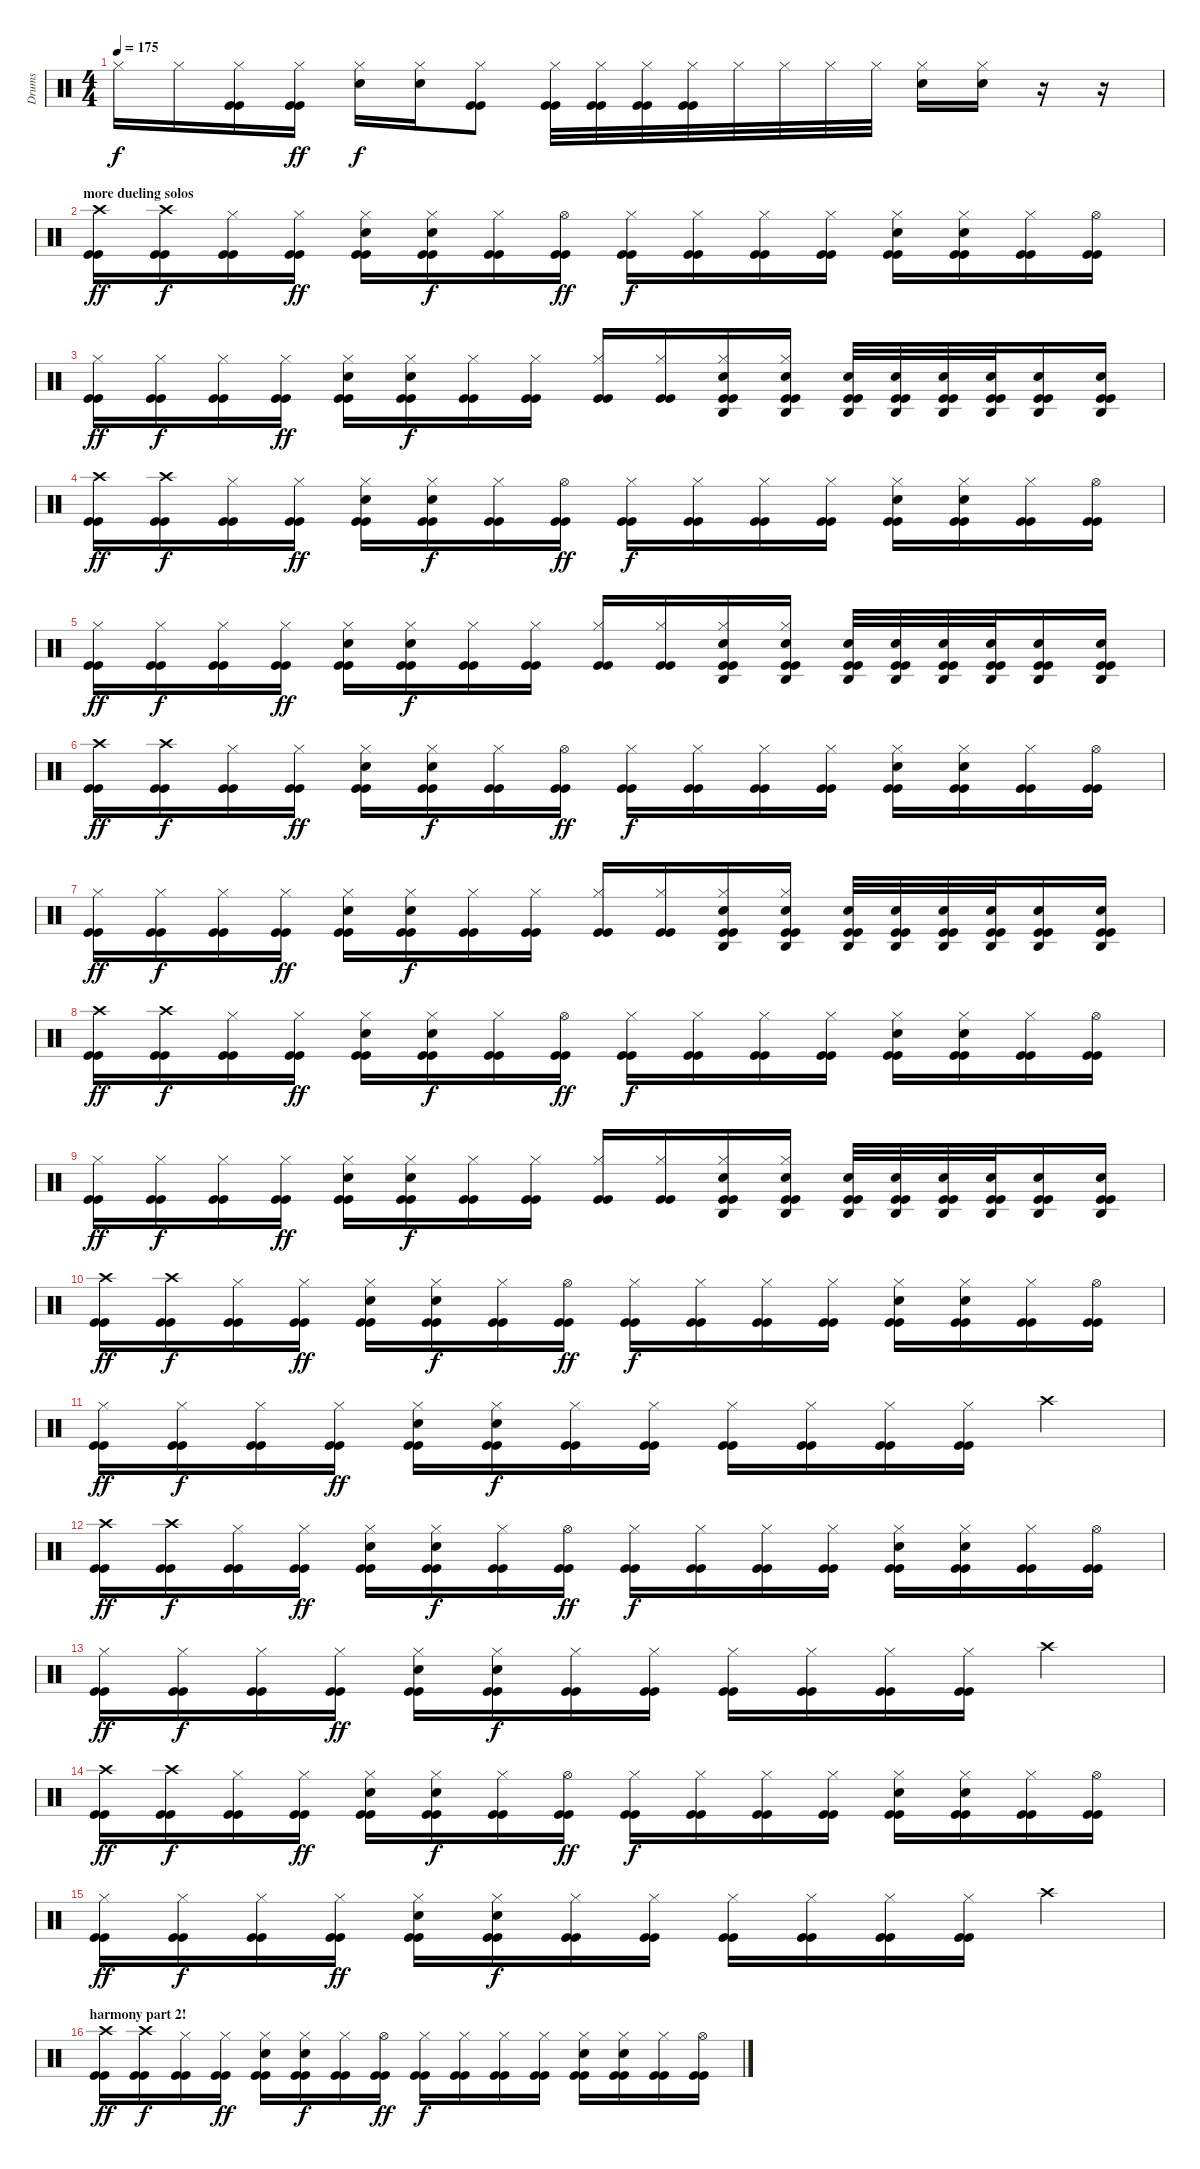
\track ("Drums" "Drums") {instrument percussion}
\staff {score}
\articulation defaults
\ts (4 4)
\tempo 175
\clef neutral
\ks c "Hi-Hat (closed)".16{dy f} "Hi-Hat (closed)".16
("Hi-Hat (closed)" "Kick (hit)" "Kick (hit)").16 ("Hi-Hat (closed)" "Kick (hit)" "Kick (hit)").16{dy ff} ("Electric Snare (hit)" "Hi-Hat (closed)").16{dy f} ("Electric Snare (hit)" "Hi-Hat (closed)").16 ("Hi-Hat (closed)" "Kick (hit)" "Kick (hit)").8 ("Hi-Hat (closed)" "Kick (hit)" "Kick (hit)").32 ("Hi-Hat (closed)" "Kick (hit)" "Kick (hit)").32 ("Hi-Hat (closed)" "Kick (hit)" "Kick (hit)").32 ("Hi-Hat (closed)" "Kick (hit)" "Kick (hit)").32 "Hi-Hat (closed)".32 "Hi-Hat (closed)".32 "Hi-Hat (closed)".32 "Hi-Hat (closed)".32 ("Electric Snare (hit)" "Hi-Hat (closed)").16 ("Electric Snare (hit)" "Hi-Hat (closed)").16 r.16 r.16 |
\section ("" "more dueling solos")
("Crash high (hit)" "Kick (hit)" "Kick (hit)").16{dy ff} ("Crash high (hit)" "Kick (hit)" "Kick (hit)").16{dy f} ("Hi-Hat (closed)" "Kick (hit)" "Kick (hit)").16 ("Hi-Hat (closed)" "Kick (hit)" "Kick (hit)").16{dy ff} ("Electric Snare (hit)" "Hi-Hat (closed)" "Kick (hit)" "Kick (hit)").16 ("Electric Snare (hit)" "Hi-Hat (closed)" "Kick (hit)" "Kick (hit)").16{dy f} ("Hi-Hat (closed)" "Kick (hit)" "Kick (hit)").16 ("Hi-Hat (open)" "Kick (hit)" "Kick (hit)").16{dy ff} ("Hi-Hat (closed)" "Kick (hit)" "Kick (hit)").16{dy f} ("Hi-Hat (closed)" "Kick (hit)" "Kick (hit)").16 ("Hi-Hat (closed)" "Kick (hit)" "Kick (hit)").16 ("Hi-Hat (closed)" "Kick (hit)" "Kick (hit)").16 ("Electric Snare (hit)" "Hi-Hat (closed)" "Kick (hit)" "Kick (hit)").16 ("Electric Snare (hit)" "Hi-Hat (closed)" "Kick (hit)" "Kick (hit)").16 ("Hi-Hat (closed)" "Kick (hit)" "Kick (hit)").16 ("Hi-Hat (open)" "Kick (hit)" "Kick (hit)").16 |
("Hi-Hat (closed)" "Kick (hit)" "Kick (hit)").16{dy ff} ("Hi-Hat (closed)" "Kick (hit)" "Kick (hit)").16{dy f} ("Hi-Hat (closed)" "Kick (hit)" "Kick (hit)").16 ("Hi-Hat (closed)" "Kick (hit)" "Kick (hit)").16{dy ff} ("Electric Snare (hit)" "Hi-Hat (closed)" "Kick (hit)" "Kick (hit)").16 ("Electric Snare (hit)" "Hi-Hat (closed)" "Kick (hit)" "Kick (hit)").16{dy f} ("Hi-Hat (closed)" "Kick (hit)" "Kick (hit)").16 ("Hi-Hat (closed)" "Kick (hit)" "Kick (hit)").16 ("Hi-Hat (closed)" "Kick (hit)" "Kick (hit)").16 ("Hi-Hat (closed)" "Kick (hit)" "Kick (hit)").16 ("Agogo high (hit)" "Electric Snare (hit)" "Hi-Hat (closed)" "Kick (hit)" "Kick (hit)").16 ("Agogo high (hit)" "Electric Snare (hit)" "Hi-Hat (closed)" "Kick (hit)" "Kick (hit)").16 ("Agogo high (hit)" "Electric Snare (hit)" "Kick (hit)" "Kick (hit)").32 ("Agogo high (hit)" "Electric Snare (hit)" "Kick (hit)" "Kick (hit)").32 ("Agogo high (hit)" "Electric Snare (hit)" "Kick (hit)" "Kick (hit)").32 ("Agogo high (hit)" "Electric Snare (hit)" "Kick (hit)" "Kick (hit)").32 ("Agogo high (hit)" "Electric Snare (hit)" "Kick (hit)" "Kick (hit)").16 ("Agogo high (hit)" "Electric Snare (hit)" "Kick (hit)" "Kick (hit)").16 |
("Crash high (hit)" "Kick (hit)" "Kick (hit)").16{dy ff} ("Crash high (hit)" "Kick (hit)" "Kick (hit)").16{dy f} ("Hi-Hat (closed)" "Kick (hit)" "Kick (hit)").16 ("Hi-Hat (closed)" "Kick (hit)" "Kick (hit)").16{dy ff} ("Electric Snare (hit)" "Hi-Hat (closed)" "Kick (hit)" "Kick (hit)").16 ("Electric Snare (hit)" "Hi-Hat (closed)" "Kick (hit)" "Kick (hit)").16{dy f} ("Hi-Hat (closed)" "Kick (hit)" "Kick (hit)").16 ("Hi-Hat (open)" "Kick (hit)" "Kick (hit)").16{dy ff} ("Hi-Hat (closed)" "Kick (hit)" "Kick (hit)").16{dy f} ("Hi-Hat (closed)" "Kick (hit)" "Kick (hit)").16 ("Hi-Hat (closed)" "Kick (hit)" "Kick (hit)").16 ("Hi-Hat (closed)" "Kick (hit)" "Kick (hit)").16 ("Electric Snare (hit)" "Hi-Hat (closed)" "Kick (hit)" "Kick (hit)").16 ("Electric Snare (hit)" "Hi-Hat (closed)" "Kick (hit)" "Kick (hit)").16 ("Hi-Hat (closed)" "Kick (hit)" "Kick (hit)").16 ("Hi-Hat (open)" "Kick (hit)" "Kick (hit)").16 |
("Hi-Hat (closed)" "Kick (hit)" "Kick (hit)").16{dy ff} ("Hi-Hat (closed)" "Kick (hit)" "Kick (hit)").16{dy f} ("Hi-Hat (closed)" "Kick (hit)" "Kick (hit)").16 ("Hi-Hat (closed)" "Kick (hit)" "Kick (hit)").16{dy ff} ("Electric Snare (hit)" "Hi-Hat (closed)" "Kick (hit)" "Kick (hit)").16 ("Electric Snare (hit)" "Hi-Hat (closed)" "Kick (hit)" "Kick (hit)").16{dy f} ("Hi-Hat (closed)" "Kick (hit)" "Kick (hit)").16 ("Hi-Hat (closed)" "Kick (hit)" "Kick (hit)").16 ("Hi-Hat (closed)" "Kick (hit)" "Kick (hit)").16 ("Hi-Hat (closed)" "Kick (hit)" "Kick (hit)").16 ("Agogo high (hit)" "Electric Snare (hit)" "Hi-Hat (closed)" "Kick (hit)" "Kick (hit)").16 ("Agogo high (hit)" "Electric Snare (hit)" "Hi-Hat (closed)" "Kick (hit)" "Kick (hit)").16 ("Agogo high (hit)" "Electric Snare (hit)" "Kick (hit)" "Kick (hit)").32 ("Agogo high (hit)" "Electric Snare (hit)" "Kick (hit)" "Kick (hit)").32 ("Agogo high (hit)" "Electric Snare (hit)" "Kick (hit)" "Kick (hit)").32 ("Agogo high (hit)" "Electric Snare (hit)" "Kick (hit)" "Kick (hit)").32 ("Agogo high (hit)" "Electric Snare (hit)" "Kick (hit)" "Kick (hit)").16 ("Agogo high (hit)" "Electric Snare (hit)" "Kick (hit)" "Kick (hit)").16 |
("Crash high (hit)" "Kick (hit)" "Kick (hit)").16{dy ff} ("Crash high (hit)" "Kick (hit)" "Kick (hit)").16{dy f} ("Hi-Hat (closed)" "Kick (hit)" "Kick (hit)").16 ("Hi-Hat (closed)" "Kick (hit)" "Kick (hit)").16{dy ff} ("Electric Snare (hit)" "Hi-Hat (closed)" "Kick (hit)" "Kick (hit)").16 ("Electric Snare (hit)" "Hi-Hat (closed)" "Kick (hit)" "Kick (hit)").16{dy f} ("Hi-Hat (closed)" "Kick (hit)" "Kick (hit)").16 ("Hi-Hat (open)" "Kick (hit)" "Kick (hit)").16{dy ff} ("Hi-Hat (closed)" "Kick (hit)" "Kick (hit)").16{dy f} ("Hi-Hat (closed)" "Kick (hit)" "Kick (hit)").16 ("Hi-Hat (closed)" "Kick (hit)" "Kick (hit)").16 ("Hi-Hat (closed)" "Kick (hit)" "Kick (hit)").16 ("Electric Snare (hit)" "Hi-Hat (closed)" "Kick (hit)" "Kick (hit)").16 ("Electric Snare (hit)" "Hi-Hat (closed)" "Kick (hit)" "Kick (hit)").16 ("Hi-Hat (closed)" "Kick (hit)" "Kick (hit)").16 ("Hi-Hat (open)" "Kick (hit)" "Kick (hit)").16 |
("Hi-Hat (closed)" "Kick (hit)" "Kick (hit)").16{dy ff} ("Hi-Hat (closed)" "Kick (hit)" "Kick (hit)").16{dy f} ("Hi-Hat (closed)" "Kick (hit)" "Kick (hit)").16 ("Hi-Hat (closed)" "Kick (hit)" "Kick (hit)").16{dy ff} ("Electric Snare (hit)" "Hi-Hat (closed)" "Kick (hit)" "Kick (hit)").16 ("Electric Snare (hit)" "Hi-Hat (closed)" "Kick (hit)" "Kick (hit)").16{dy f} ("Hi-Hat (closed)" "Kick (hit)" "Kick (hit)").16 ("Hi-Hat (closed)" "Kick (hit)" "Kick (hit)").16 ("Hi-Hat (closed)" "Kick (hit)" "Kick (hit)").16 ("Hi-Hat (closed)" "Kick (hit)" "Kick (hit)").16 ("Agogo high (hit)" "Electric Snare (hit)" "Hi-Hat (closed)" "Kick (hit)" "Kick (hit)").16 ("Agogo high (hit)" "Electric Snare (hit)" "Hi-Hat (closed)" "Kick (hit)" "Kick (hit)").16 ("Agogo high (hit)" "Electric Snare (hit)" "Kick (hit)" "Kick (hit)").32 ("Agogo high (hit)" "Electric Snare (hit)" "Kick (hit)" "Kick (hit)").32 ("Agogo high (hit)" "Electric Snare (hit)" "Kick (hit)" "Kick (hit)").32 ("Agogo high (hit)" "Electric Snare (hit)" "Kick (hit)" "Kick (hit)").32 ("Agogo high (hit)" "Electric Snare (hit)" "Kick (hit)" "Kick (hit)").16 ("Agogo high (hit)" "Electric Snare (hit)" "Kick (hit)" "Kick (hit)").16 |
("Crash high (hit)" "Kick (hit)" "Kick (hit)").16{dy ff} ("Crash high (hit)" "Kick (hit)" "Kick (hit)").16{dy f} ("Hi-Hat (closed)" "Kick (hit)" "Kick (hit)").16 ("Hi-Hat (closed)" "Kick (hit)" "Kick (hit)").16{dy ff} ("Electric Snare (hit)" "Hi-Hat (closed)" "Kick (hit)" "Kick (hit)").16 ("Electric Snare (hit)" "Hi-Hat (closed)" "Kick (hit)" "Kick (hit)").16{dy f} ("Hi-Hat (closed)" "Kick (hit)" "Kick (hit)").16 ("Hi-Hat (open)" "Kick (hit)" "Kick (hit)").16{dy ff} ("Hi-Hat (closed)" "Kick (hit)" "Kick (hit)").16{dy f} ("Hi-Hat (closed)" "Kick (hit)" "Kick (hit)").16 ("Hi-Hat (closed)" "Kick (hit)" "Kick (hit)").16 ("Hi-Hat (closed)" "Kick (hit)" "Kick (hit)").16 ("Electric Snare (hit)" "Hi-Hat (closed)" "Kick (hit)" "Kick (hit)").16 ("Electric Snare (hit)" "Hi-Hat (closed)" "Kick (hit)" "Kick (hit)").16 ("Hi-Hat (closed)" "Kick (hit)" "Kick (hit)").16 ("Hi-Hat (open)" "Kick (hit)" "Kick (hit)").16 |
("Hi-Hat (closed)" "Kick (hit)" "Kick (hit)").16{dy ff} ("Hi-Hat (closed)" "Kick (hit)" "Kick (hit)").16{dy f} ("Hi-Hat (closed)" "Kick (hit)" "Kick (hit)").16 ("Hi-Hat (closed)" "Kick (hit)" "Kick (hit)").16{dy ff} ("Electric Snare (hit)" "Hi-Hat (closed)" "Kick (hit)" "Kick (hit)").16 ("Electric Snare (hit)" "Hi-Hat (closed)" "Kick (hit)" "Kick (hit)").16{dy f} ("Hi-Hat (closed)" "Kick (hit)" "Kick (hit)").16 ("Hi-Hat (closed)" "Kick (hit)" "Kick (hit)").16 ("Hi-Hat (closed)" "Kick (hit)" "Kick (hit)").16 ("Hi-Hat (closed)" "Kick (hit)" "Kick (hit)").16 ("Agogo high (hit)" "Electric Snare (hit)" "Hi-Hat (closed)" "Kick (hit)" "Kick (hit)").16 ("Agogo high (hit)" "Electric Snare (hit)" "Hi-Hat (closed)" "Kick (hit)" "Kick (hit)").16 ("Agogo high (hit)" "Electric Snare (hit)" "Kick (hit)" "Kick (hit)").32 ("Agogo high (hit)" "Electric Snare (hit)" "Kick (hit)" "Kick (hit)").32 ("Agogo high (hit)" "Electric Snare (hit)" "Kick (hit)" "Kick (hit)").32 ("Agogo high (hit)" "Electric Snare (hit)" "Kick (hit)" "Kick (hit)").32 ("Agogo high (hit)" "Electric Snare (hit)" "Kick (hit)" "Kick (hit)").16 ("Agogo high (hit)" "Electric Snare (hit)" "Kick (hit)" "Kick (hit)").16 |
("Crash high (hit)" "Kick (hit)" "Kick (hit)").16{dy ff} ("Crash high (hit)" "Kick (hit)" "Kick (hit)").16{dy f} ("Hi-Hat (closed)" "Kick (hit)" "Kick (hit)").16 ("Hi-Hat (closed)" "Kick (hit)" "Kick (hit)").16{dy ff} ("Electric Snare (hit)" "Hi-Hat (closed)" "Kick (hit)" "Kick (hit)").16 ("Electric Snare (hit)" "Hi-Hat (closed)" "Kick (hit)" "Kick (hit)").16{dy f} ("Hi-Hat (closed)" "Kick (hit)" "Kick (hit)").16 ("Hi-Hat (open)" "Kick (hit)" "Kick (hit)").16{dy ff} ("Hi-Hat (closed)" "Kick (hit)" "Kick (hit)").16{dy f} ("Hi-Hat (closed)" "Kick (hit)" "Kick (hit)").16 ("Hi-Hat (closed)" "Kick (hit)" "Kick (hit)").16 ("Hi-Hat (closed)" "Kick (hit)" "Kick (hit)").16 ("Electric Snare (hit)" "Hi-Hat (closed)" "Kick (hit)" "Kick (hit)").16 ("Electric Snare (hit)" "Hi-Hat (closed)" "Kick (hit)" "Kick (hit)").16 ("Hi-Hat (closed)" "Kick (hit)" "Kick (hit)").16 ("Hi-Hat (open)" "Kick (hit)" "Kick (hit)").16 |
("Hi-Hat (closed)" "Kick (hit)" "Kick (hit)").16{dy ff} ("Hi-Hat (closed)" "Kick (hit)" "Kick (hit)").16{dy f} ("Hi-Hat (closed)" "Kick (hit)" "Kick (hit)").16 ("Hi-Hat (closed)" "Kick (hit)" "Kick (hit)").16{dy ff} ("Electric Snare (hit)" "Hi-Hat (closed)" "Kick (hit)" "Kick (hit)").16 ("Electric Snare (hit)" "Hi-Hat (closed)" "Kick (hit)" "Kick (hit)").16{dy f} ("Hi-Hat (closed)" "Kick (hit)" "Kick (hit)").16 ("Hi-Hat (closed)" "Kick (hit)" "Kick (hit)").16 ("Hi-Hat (closed)" "Kick (hit)" "Kick (hit)").16 ("Hi-Hat (closed)" "Kick (hit)" "Kick (hit)").16 ("Hi-Hat (closed)" "Kick (hit)" "Kick (hit)").16 ("Hi-Hat (closed)" "Kick (hit)" "Kick (hit)").16 "Crash high (hit)".4 |
("Crash high (hit)" "Kick (hit)" "Kick (hit)").16{dy ff} ("Crash high (hit)" "Kick (hit)" "Kick (hit)").16{dy f} ("Hi-Hat (closed)" "Kick (hit)" "Kick (hit)").16 ("Hi-Hat (closed)" "Kick (hit)" "Kick (hit)").16{dy ff} ("Electric Snare (hit)" "Hi-Hat (closed)" "Kick (hit)" "Kick (hit)").16 ("Electric Snare (hit)" "Hi-Hat (closed)" "Kick (hit)" "Kick (hit)").16{dy f} ("Hi-Hat (closed)" "Kick (hit)" "Kick (hit)").16 ("Hi-Hat (open)" "Kick (hit)" "Kick (hit)").16{dy ff} ("Hi-Hat (closed)" "Kick (hit)" "Kick (hit)").16{dy f} ("Hi-Hat (closed)" "Kick (hit)" "Kick (hit)").16 ("Hi-Hat (closed)" "Kick (hit)" "Kick (hit)").16 ("Hi-Hat (closed)" "Kick (hit)" "Kick (hit)").16 ("Electric Snare (hit)" "Hi-Hat (closed)" "Kick (hit)" "Kick (hit)").16 ("Electric Snare (hit)" "Hi-Hat (closed)" "Kick (hit)" "Kick (hit)").16 ("Hi-Hat (closed)" "Kick (hit)" "Kick (hit)").16 ("Hi-Hat (open)" "Kick (hit)" "Kick (hit)").16 |
("Hi-Hat (closed)" "Kick (hit)" "Kick (hit)").16{dy ff} ("Hi-Hat (closed)" "Kick (hit)" "Kick (hit)").16{dy f} ("Hi-Hat (closed)" "Kick (hit)" "Kick (hit)").16 ("Hi-Hat (closed)" "Kick (hit)" "Kick (hit)").16{dy ff} ("Electric Snare (hit)" "Hi-Hat (closed)" "Kick (hit)" "Kick (hit)").16 ("Electric Snare (hit)" "Hi-Hat (closed)" "Kick (hit)" "Kick (hit)").16{dy f} ("Hi-Hat (closed)" "Kick (hit)" "Kick (hit)").16 ("Hi-Hat (closed)" "Kick (hit)" "Kick (hit)").16 ("Hi-Hat (closed)" "Kick (hit)" "Kick (hit)").16 ("Hi-Hat (closed)" "Kick (hit)" "Kick (hit)").16 ("Hi-Hat (closed)" "Kick (hit)" "Kick (hit)").16 ("Hi-Hat (closed)" "Kick (hit)" "Kick (hit)").16 "Crash high (hit)".4 |
("Crash high (hit)" "Kick (hit)" "Kick (hit)").16{dy ff} ("Crash high (hit)" "Kick (hit)" "Kick (hit)").16{dy f} ("Hi-Hat (closed)" "Kick (hit)" "Kick (hit)").16 ("Hi-Hat (closed)" "Kick (hit)" "Kick (hit)").16{dy ff} ("Electric Snare (hit)" "Hi-Hat (closed)" "Kick (hit)" "Kick (hit)").16 ("Electric Snare (hit)" "Hi-Hat (closed)" "Kick (hit)" "Kick (hit)").16{dy f} ("Hi-Hat (closed)" "Kick (hit)" "Kick (hit)").16 ("Hi-Hat (open)" "Kick (hit)" "Kick (hit)").16{dy ff} ("Hi-Hat (closed)" "Kick (hit)" "Kick (hit)").16{dy f} ("Hi-Hat (closed)" "Kick (hit)" "Kick (hit)").16 ("Hi-Hat (closed)" "Kick (hit)" "Kick (hit)").16 ("Hi-Hat (closed)" "Kick (hit)" "Kick (hit)").16 ("Electric Snare (hit)" "Hi-Hat (closed)" "Kick (hit)" "Kick (hit)").16 ("Electric Snare (hit)" "Hi-Hat (closed)" "Kick (hit)" "Kick (hit)").16 ("Hi-Hat (closed)" "Kick (hit)" "Kick (hit)").16 ("Hi-Hat (open)" "Kick (hit)" "Kick (hit)").16 |
("Hi-Hat (closed)" "Kick (hit)" "Kick (hit)").16{dy ff} ("Hi-Hat (closed)" "Kick (hit)" "Kick (hit)").16{dy f} ("Hi-Hat (closed)" "Kick (hit)" "Kick (hit)").16 ("Hi-Hat (closed)" "Kick (hit)" "Kick (hit)").16{dy ff} ("Electric Snare (hit)" "Hi-Hat (closed)" "Kick (hit)" "Kick (hit)").16 ("Electric Snare (hit)" "Hi-Hat (closed)" "Kick (hit)" "Kick (hit)").16{dy f} ("Hi-Hat (closed)" "Kick (hit)" "Kick (hit)").16 ("Hi-Hat (closed)" "Kick (hit)" "Kick (hit)").16 ("Hi-Hat (closed)" "Kick (hit)" "Kick (hit)").16 ("Hi-Hat (closed)" "Kick (hit)" "Kick (hit)").16 ("Hi-Hat (closed)" "Kick (hit)" "Kick (hit)").16 ("Hi-Hat (closed)" "Kick (hit)" "Kick (hit)").16 "Crash high (hit)".4 |
\section ("" "harmony part 2!")
("Crash high (hit)" "Kick (hit)" "Kick (hit)").16{dy ff} ("Crash high (hit)" "Kick (hit)" "Kick (hit)").16{dy f} ("Hi-Hat (closed)" "Kick (hit)" "Kick (hit)").16 ("Hi-Hat (closed)" "Kick (hit)" "Kick (hit)").16{dy ff} ("Electric Snare (hit)" "Hi-Hat (closed)" "Kick (hit)" "Kick (hit)").16 ("Electric Snare (hit)" "Hi-Hat (closed)" "Kick (hit)" "Kick (hit)").16{dy f} ("Hi-Hat (closed)" "Kick (hit)" "Kick (hit)").16 ("Hi-Hat (open)" "Kick (hit)" "Kick (hit)").16{dy ff} ("Hi-Hat (closed)" "Kick (hit)" "Kick (hit)").16{dy f} ("Hi-Hat (closed)" "Kick (hit)" "Kick (hit)").16 ("Hi-Hat (closed)" "Kick (hit)" "Kick (hit)").16 ("Hi-Hat (closed)" "Kick (hit)" "Kick (hit)").16 ("Electric Snare (hit)" "Hi-Hat (closed)" "Kick (hit)" "Kick (hit)").16 ("Electric Snare (hit)" "Hi-Hat (closed)" "Kick (hit)" "Kick (hit)").16 ("Hi-Hat (closed)" "Kick (hit)" "Kick (hit)").16 ("Hi-Hat (open)" "Kick (hit)" "Kick (hit)").16
